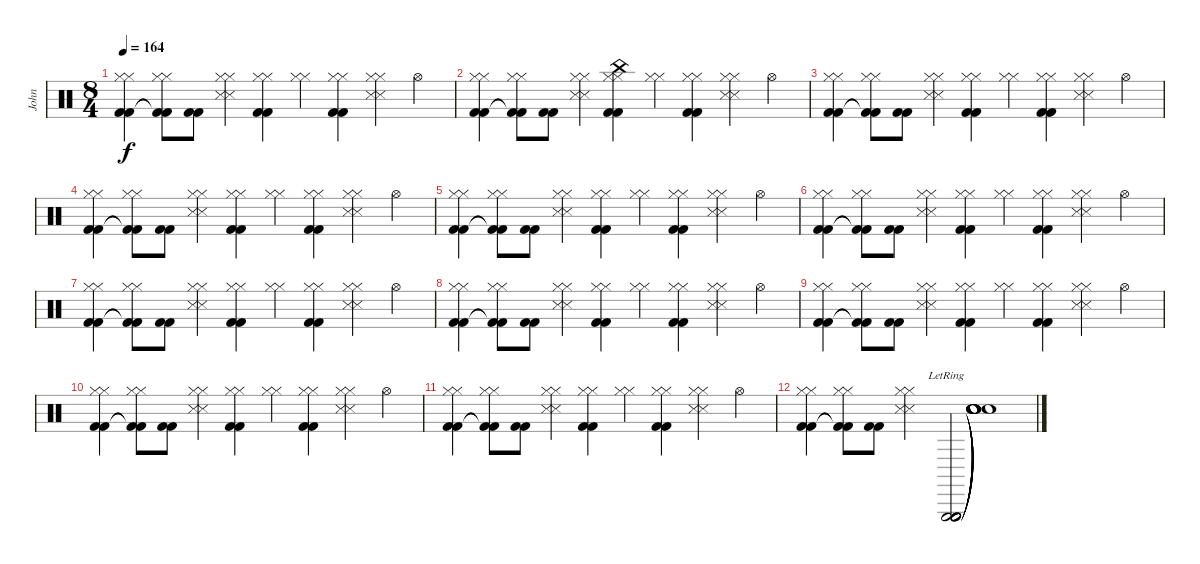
\track ("John" "John") {instrument percussion}
\staff {score}
\articulation defaults
\ts (8 4)
\tempo 164
\clef neutral
\ks c
("Kick (hit) 2" "Kick (hit) 2" "Hi-Hat (closed)" "Hi-Hat (closed)").4{dy f} ("Kick (hit) 2"{t} "Kick (hit) 2"{t} "Hi-Hat (closed)" "Hi-Hat (closed)").8 ("Kick (hit) 2" "Kick (hit) 2").8 ("Snare (side stick) 3" "Snare (side stick) 3" "Hi-Hat (closed)" "Hi-Hat (closed)").4 ("Kick (hit) 2" "Kick (hit) 2" "Hi-Hat (closed)" "Hi-Hat (closed)").4 ("Hi-Hat (closed)" "Hi-Hat (closed)").4 ("Kick (hit) 2" "Kick (hit) 2" "Hi-Hat (closed)" "Hi-Hat (closed)").4 ("Snare (side stick) 3" "Snare (side stick) 3" "Hi-Hat (closed)" "Hi-Hat (closed)").4 "Hi-Hat (open)".4 |
("Kick (hit) 2" "Kick (hit) 2" "Hi-Hat (closed)" "Hi-Hat (closed)").4 ("Kick (hit) 2"{t} "Kick (hit) 2"{t} "Hi-Hat (closed)" "Hi-Hat (closed)").8 ("Kick (hit) 2" "Kick (hit) 2").8 ("Snare (side stick) 3" "Snare (side stick) 3" "Hi-Hat (closed)" "Hi-Hat (closed)").4 ("Kick (hit) 2" "Kick (hit) 2" "China (hit)" "Hi-Hat (closed)" "Hi-Hat (closed)").4 ("Hi-Hat (closed)" "Hi-Hat (closed)").4 ("Kick (hit) 2" "Kick (hit) 2" "Hi-Hat (closed)" "Hi-Hat (closed)").4 ("Snare (side stick) 3" "Snare (side stick) 3" "Hi-Hat (closed)" "Hi-Hat (closed)").4 "Hi-Hat (open)".4 |
("Kick (hit) 2" "Kick (hit) 2" "Hi-Hat (closed)" "Hi-Hat (closed)").4 ("Kick (hit) 2"{t} "Kick (hit) 2"{t} "Hi-Hat (closed)" "Hi-Hat (closed)").8 ("Kick (hit) 2" "Kick (hit) 2").8 ("Snare (side stick) 3" "Snare (side stick) 3" "Hi-Hat (closed)" "Hi-Hat (closed)").4 ("Kick (hit) 2" "Kick (hit) 2" "Hi-Hat (closed)" "Hi-Hat (closed)").4 ("Hi-Hat (closed)" "Hi-Hat (closed)").4 ("Kick (hit) 2" "Kick (hit) 2" "Hi-Hat (closed)" "Hi-Hat (closed)").4 ("Snare (side stick) 3" "Snare (side stick) 3" "Hi-Hat (closed)" "Hi-Hat (closed)").4 "Hi-Hat (open)".4 |
("Kick (hit) 2" "Kick (hit) 2" "Hi-Hat (closed)" "Hi-Hat (closed)").4 ("Kick (hit) 2"{t} "Kick (hit) 2"{t} "Hi-Hat (closed)" "Hi-Hat (closed)").8 ("Kick (hit) 2" "Kick (hit) 2").8 ("Snare (side stick) 3" "Snare (side stick) 3" "Hi-Hat (closed)" "Hi-Hat (closed)").4 ("Kick (hit) 2" "Kick (hit) 2" "Hi-Hat (closed)" "Hi-Hat (closed)").4 ("Hi-Hat (closed)" "Hi-Hat (closed)").4 ("Kick (hit) 2" "Kick (hit) 2" "Hi-Hat (closed)" "Hi-Hat (closed)").4 ("Snare (side stick) 3" "Snare (side stick) 3" "Hi-Hat (closed)" "Hi-Hat (closed)").4 "Hi-Hat (open)".4 |
("Kick (hit) 2" "Kick (hit) 2" "Hi-Hat (closed)" "Hi-Hat (closed)").4 ("Kick (hit) 2"{t} "Kick (hit) 2"{t} "Hi-Hat (closed)" "Hi-Hat (closed)").8 ("Kick (hit) 2" "Kick (hit) 2").8 ("Snare (side stick) 3" "Snare (side stick) 3" "Hi-Hat (closed)" "Hi-Hat (closed)").4 ("Kick (hit) 2" "Kick (hit) 2" "Hi-Hat (closed)" "Hi-Hat (closed)").4 ("Hi-Hat (closed)" "Hi-Hat (closed)").4 ("Kick (hit) 2" "Kick (hit) 2" "Hi-Hat (closed)" "Hi-Hat (closed)").4 ("Snare (side stick) 3" "Snare (side stick) 3" "Hi-Hat (closed)" "Hi-Hat (closed)").4 "Hi-Hat (open)".4 |
("Kick (hit) 2" "Kick (hit) 2" "Hi-Hat (closed)" "Hi-Hat (closed)").4 ("Kick (hit) 2"{t} "Kick (hit) 2"{t} "Hi-Hat (closed)" "Hi-Hat (closed)").8 ("Kick (hit) 2" "Kick (hit) 2").8 ("Snare (side stick) 3" "Snare (side stick) 3" "Hi-Hat (closed)" "Hi-Hat (closed)").4 ("Kick (hit) 2" "Kick (hit) 2" "Hi-Hat (closed)" "Hi-Hat (closed)").4 ("Hi-Hat (closed)" "Hi-Hat (closed)").4 ("Kick (hit) 2" "Kick (hit) 2" "Hi-Hat (closed)" "Hi-Hat (closed)").4 ("Snare (side stick) 3" "Snare (side stick) 3" "Hi-Hat (closed)" "Hi-Hat (closed)").4 "Hi-Hat (open)".4 |
("Kick (hit) 2" "Kick (hit) 2" "Hi-Hat (closed)" "Hi-Hat (closed)").4 ("Kick (hit) 2"{t} "Kick (hit) 2"{t} "Hi-Hat (closed)" "Hi-Hat (closed)").8 ("Kick (hit) 2" "Kick (hit) 2").8 ("Snare (side stick) 3" "Snare (side stick) 3" "Hi-Hat (closed)" "Hi-Hat (closed)").4 ("Kick (hit) 2" "Kick (hit) 2" "Hi-Hat (closed)" "Hi-Hat (closed)").4 ("Hi-Hat (closed)" "Hi-Hat (closed)").4 ("Kick (hit) 2" "Kick (hit) 2" "Hi-Hat (closed)" "Hi-Hat (closed)").4 ("Snare (side stick) 3" "Snare (side stick) 3" "Hi-Hat (closed)" "Hi-Hat (closed)").4 "Hi-Hat (open)".4 |
("Kick (hit) 2" "Kick (hit) 2" "Hi-Hat (closed)" "Hi-Hat (closed)").4 ("Kick (hit) 2"{t} "Kick (hit) 2"{t} "Hi-Hat (closed)" "Hi-Hat (closed)").8 ("Kick (hit) 2" "Kick (hit) 2").8 ("Snare (side stick) 3" "Snare (side stick) 3" "Hi-Hat (closed)" "Hi-Hat (closed)").4 ("Kick (hit) 2" "Kick (hit) 2" "Hi-Hat (closed)" "Hi-Hat (closed)").4 ("Hi-Hat (closed)" "Hi-Hat (closed)").4 ("Kick (hit) 2" "Kick (hit) 2" "Hi-Hat (closed)" "Hi-Hat (closed)").4 ("Snare (side stick) 3" "Snare (side stick) 3" "Hi-Hat (closed)" "Hi-Hat (closed)").4 "Hi-Hat (open)".4 |
("Kick (hit) 2" "Kick (hit) 2" "Hi-Hat (closed)" "Hi-Hat (closed)").4 ("Kick (hit) 2"{t} "Kick (hit) 2"{t} "Hi-Hat (closed)" "Hi-Hat (closed)").8 ("Kick (hit) 2" "Kick (hit) 2").8 ("Snare (side stick) 3" "Snare (side stick) 3" "Hi-Hat (closed)" "Hi-Hat (closed)").4 ("Kick (hit) 2" "Kick (hit) 2" "Hi-Hat (closed)" "Hi-Hat (closed)").4 ("Hi-Hat (closed)" "Hi-Hat (closed)").4 ("Kick (hit) 2" "Kick (hit) 2" "Hi-Hat (closed)" "Hi-Hat (closed)").4 ("Snare (side stick) 3" "Snare (side stick) 3" "Hi-Hat (closed)" "Hi-Hat (closed)").4 "Hi-Hat (open)".4 |
("Kick (hit) 2" "Kick (hit) 2" "Hi-Hat (closed)" "Hi-Hat (closed)").4 ("Kick (hit) 2"{t} "Kick (hit) 2"{t} "Hi-Hat (closed)" "Hi-Hat (closed)").8 ("Kick (hit) 2" "Kick (hit) 2").8 ("Snare (side stick) 3" "Snare (side stick) 3" "Hi-Hat (closed)" "Hi-Hat (closed)").4 ("Kick (hit) 2" "Kick (hit) 2" "Hi-Hat (closed)" "Hi-Hat (closed)").4 ("Hi-Hat (closed)" "Hi-Hat (closed)").4 ("Kick (hit) 2" "Kick (hit) 2" "Hi-Hat (closed)" "Hi-Hat (closed)").4 ("Snare (side stick) 3" "Snare (side stick) 3" "Hi-Hat (closed)" "Hi-Hat (closed)").4 "Hi-Hat (open)".4 |
("Kick (hit) 2" "Kick (hit) 2" "Hi-Hat (closed)" "Hi-Hat (closed)").4 ("Kick (hit) 2"{t} "Kick (hit) 2"{t} "Hi-Hat (closed)" "Hi-Hat (closed)").8 ("Kick (hit) 2" "Kick (hit) 2").8 ("Snare (side stick) 3" "Snare (side stick) 3" "Hi-Hat (closed)" "Hi-Hat (closed)").4 ("Kick (hit) 2" "Kick (hit) 2" "Hi-Hat (closed)" "Hi-Hat (closed)").4 ("Hi-Hat (closed)" "Hi-Hat (closed)").4 ("Kick (hit) 2" "Kick (hit) 2" "Hi-Hat (closed)" "Hi-Hat (closed)").4 ("Snare (side stick) 3" "Snare (side stick) 3" "Hi-Hat (closed)" "Hi-Hat (closed)").4 "Hi-Hat (open)".4 |
("Kick (hit) 2" "Kick (hit) 2" "Hi-Hat (closed)" "Hi-Hat (closed)").4 ("Kick (hit) 2"{t} "Kick (hit) 2"{t} "Hi-Hat (closed)" "Hi-Hat (closed)").8 ("Kick (hit) 2" "Kick (hit) 2").8 ("Snare (side stick) 3" "Snare (side stick) 3" "Hi-Hat (closed)" "Hi-Hat (closed)").4 ("Triangle (hit)"{lr} "Triangle (hit)"{lr} "Triangle (hit)"{lr} "Triangle (hit)"{lr} "Triangle (hit)"{lr} "Triangle (hit)"{lr}).2 ("Snare (hit)"{t} "Snare (hit)"{t} "Snare (hit)"{t} "Snare (hit)"{t} "Snare (hit)"{t} "Snare (hit)"{t}).1
